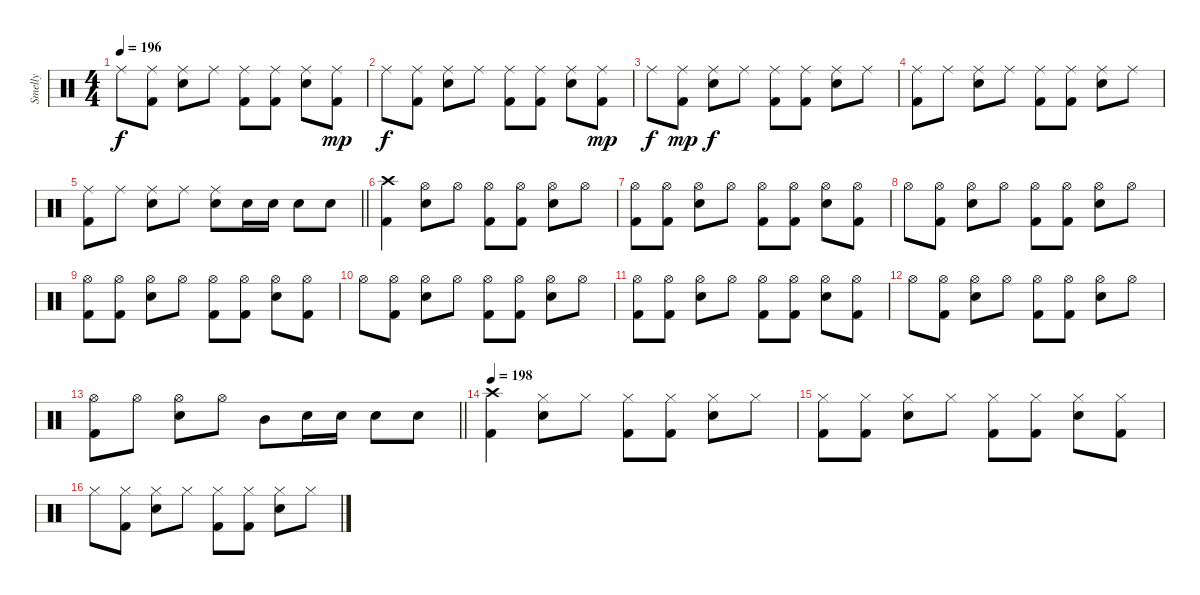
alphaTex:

\track ("Smelly" "Smelly") {instrument percussion}
\staff {score}
\articulation defaults
\ts (4 4)
\tempo 196
\clef neutral
\ks c "Ride (middle)".8{dy f}
("Ride (middle)" "Kick (hit) 2").8 ("Ride (middle)" "Electric Snare (hit)").8 "Ride (middle)".8 ("Ride (middle)" "Kick (hit) 2").8 ("Ride (middle)" "Kick (hit) 2").8 ("Ride (middle)" "Electric Snare (hit)").8 ("Ride (middle)" "Kick (hit) 2").8{dy mp} |
"Ride (middle)".8{dy f} ("Ride (middle)" "Kick (hit) 2").8 ("Ride (middle)" "Electric Snare (hit)").8 "Ride (middle)".8 ("Ride (middle)" "Kick (hit) 2").8 ("Ride (middle)" "Kick (hit) 2").8 ("Ride (middle)" "Electric Snare (hit)").8 ("Ride (middle)" "Kick (hit) 2").8{dy mp} |
"Ride (middle)".8{dy f} ("Ride (middle)" "Kick (hit) 2").8{dy mp} ("Ride (middle)" "Electric Snare (hit)").8{dy f} "Ride (middle)".8 ("Ride (middle)" "Kick (hit) 2").8 ("Ride (middle)" "Kick (hit) 2").8 ("Ride (middle)" "Electric Snare (hit)").8 "Ride (middle)".8 |
("Ride (middle)" "Kick (hit) 2").8 "Ride (middle)".8 ("Ride (middle)" "Electric Snare (hit)").8 "Ride (middle)".8 ("Ride (middle)" "Kick (hit) 2").8 ("Ride (middle)" "Kick (hit) 2").8 ("Ride (middle)" "Electric Snare (hit)").8 "Ride (middle)".8 |
\barLineRight lightlight
("Ride (middle)" "Kick (hit) 2").8 "Ride (middle)".8 ("Ride (middle)" "Electric Snare (hit)").8 "Ride (middle)".8 ("Ride (middle)" "Electric Snare (hit)").8 "Electric Snare (hit)".16 "Electric Snare (hit)".16 "Electric Snare (hit)".8 "Electric Snare (hit)".8 |
\section ("" "")
("Crash high (hit)" "Kick (hit) 2").4 ("Hi-Hat (open)" "Electric Snare (hit)").8 "Hi-Hat (open)".8 ("Hi-Hat (open)" "Kick (hit) 2").8 ("Hi-Hat (open)" "Kick (hit) 2").8 ("Hi-Hat (open)" "Electric Snare (hit)").8 "Hi-Hat (open)".8 |
("Hi-Hat (open)" "Kick (hit) 2").8 ("Hi-Hat (open)" "Kick (hit) 2").8 ("Hi-Hat (open)" "Electric Snare (hit)").8 "Hi-Hat (open)".8 ("Hi-Hat (open)" "Kick (hit) 2").8 ("Hi-Hat (open)" "Kick (hit) 2").8 ("Hi-Hat (open)" "Electric Snare (hit)").8 ("Hi-Hat (open)" "Kick (hit) 2").8 |
"Hi-Hat (open)".8 ("Hi-Hat (open)" "Kick (hit) 2").8 ("Hi-Hat (open)" "Electric Snare (hit)").8 "Hi-Hat (open)".8 ("Hi-Hat (open)" "Kick (hit) 2").8 ("Hi-Hat (open)" "Kick (hit) 2").8 ("Hi-Hat (open)" "Electric Snare (hit)").8 "Hi-Hat (open)".8 |
("Hi-Hat (open)" "Kick (hit) 2").8 ("Hi-Hat (open)" "Kick (hit) 2").8 ("Hi-Hat (open)" "Electric Snare (hit)").8 "Hi-Hat (open)".8 ("Hi-Hat (open)" "Kick (hit) 2").8 ("Hi-Hat (open)" "Kick (hit) 2").8 ("Hi-Hat (open)" "Electric Snare (hit)").8 ("Hi-Hat (open)" "Kick (hit) 2").8 |
"Hi-Hat (open)".8 ("Hi-Hat (open)" "Kick (hit) 2").8 ("Hi-Hat (open)" "Electric Snare (hit)").8 "Hi-Hat (open)".8 ("Hi-Hat (open)" "Kick (hit) 2").8 ("Hi-Hat (open)" "Kick (hit) 2").8 ("Hi-Hat (open)" "Electric Snare (hit)").8 "Hi-Hat (open)".8 |
("Hi-Hat (open)" "Kick (hit) 2").8 ("Hi-Hat (open)" "Kick (hit) 2").8 ("Hi-Hat (open)" "Electric Snare (hit)").8 "Hi-Hat (open)".8 ("Hi-Hat (open)" "Kick (hit) 2").8 ("Hi-Hat (open)" "Kick (hit) 2").8 ("Hi-Hat (open)" "Electric Snare (hit)").8 ("Hi-Hat (open)" "Kick (hit) 2").8 |
"Hi-Hat (open)".8 ("Hi-Hat (open)" "Kick (hit) 2").8 ("Hi-Hat (open)" "Electric Snare (hit)").8 "Hi-Hat (open)".8 ("Hi-Hat (open)" "Kick (hit) 2").8 ("Hi-Hat (open)" "Kick (hit) 2").8 ("Hi-Hat (open)" "Electric Snare (hit)").8 "Hi-Hat (open)".8 |
\barLineRight lightlight
("Hi-Hat (open)" "Kick (hit) 2").8 "Hi-Hat (open)".8 ("Hi-Hat (open)" "Electric Snare (hit)").8 "Hi-Hat (open)".8 "Mid Tom (hit)".8 "Electric Snare (hit)".16 "Electric Snare (hit)".16 "Electric Snare (hit)".8 "Electric Snare (hit)".8 |
\section ("" "")
\tempo 198
("Crash high (hit)" "Kick (hit) 2").4 ("Hi-Hat (closed)" "Electric Snare (hit)").8 "Hi-Hat (closed)".8 ("Hi-Hat (closed)" "Kick (hit) 2").8 ("Hi-Hat (closed)" "Kick (hit) 2").8 ("Hi-Hat (closed)" "Electric Snare (hit)").8 "Hi-Hat (closed)".8 |
("Hi-Hat (closed)" "Kick (hit) 2").8 ("Hi-Hat (closed)" "Kick (hit) 2").8 ("Hi-Hat (closed)" "Electric Snare (hit)").8 "Hi-Hat (closed)".8 ("Hi-Hat (closed)" "Kick (hit) 2").8 ("Hi-Hat (closed)" "Kick (hit) 2").8 ("Hi-Hat (closed)" "Electric Snare (hit)").8 ("Hi-Hat (closed)" "Kick (hit) 2").8 |
"Hi-Hat (closed)".8 ("Hi-Hat (closed)" "Kick (hit) 2").8 ("Hi-Hat (closed)" "Electric Snare (hit)").8 "Hi-Hat (closed)".8 ("Hi-Hat (closed)" "Kick (hit) 2").8 ("Hi-Hat (closed)" "Kick (hit) 2").8 ("Hi-Hat (closed)" "Electric Snare (hit)").8 "Hi-Hat (closed)".8
